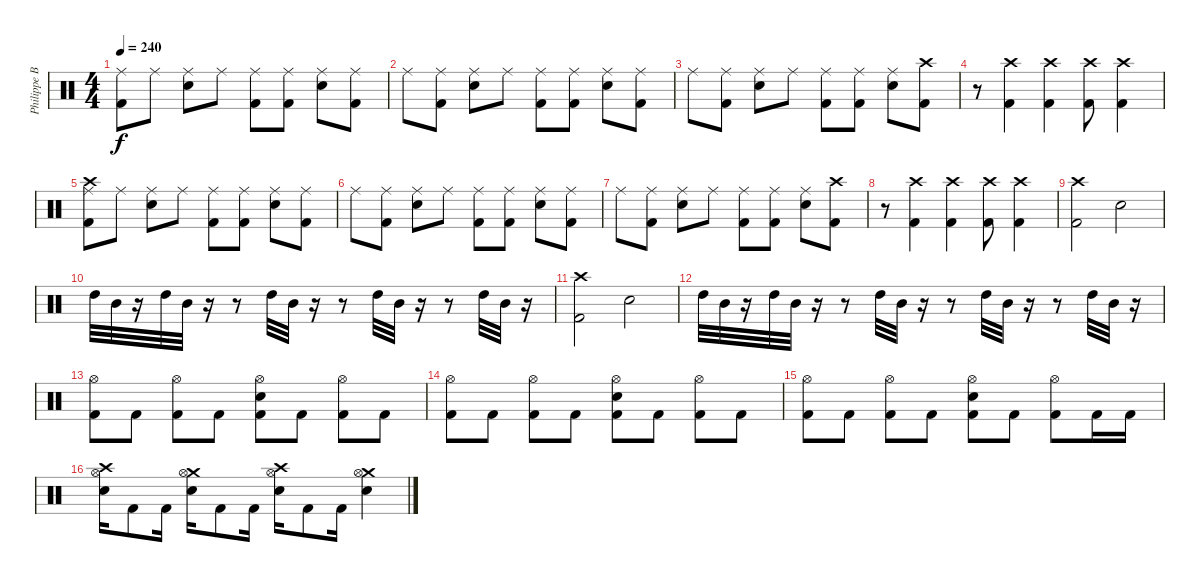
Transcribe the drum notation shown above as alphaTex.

\track ("Philippe Borda" "Philippe B") {instrument percussion}
\staff {score}
\articulation defaults
\ts (4 4)
\tempo 240
\clef neutral
\ks c
("Ride (middle)" "Kick (hit) 2").8{dy f} "Ride (middle)".8 ("Ride (middle)" "Snare (hit) 2").8 "Ride (middle)".8 ("Ride (middle)" "Kick (hit) 2").8 ("Ride (middle)" "Kick (hit) 2").8 ("Ride (middle)" "Snare (hit) 2").8 ("Ride (middle)" "Kick (hit) 2").8 |
"Ride (middle)".8 ("Ride (middle)" "Kick (hit) 2").8 ("Ride (middle)" "Snare (hit) 2").8 "Ride (middle)".8 ("Ride (middle)" "Kick (hit) 2").8 ("Ride (middle)" "Kick (hit) 2").8 ("Ride (middle)" "Snare (hit) 2").8 ("Ride (middle)" "Kick (hit) 2").8 |
"Ride (middle)".8 ("Ride (middle)" "Kick (hit) 2").8 ("Ride (middle)" "Snare (hit) 2").8 "Ride (middle)".8 ("Ride (middle)" "Kick (hit) 2").8 ("Ride (middle)" "Kick (hit) 2").8 ("Ride (middle)" "Snare (hit) 2").8 ("Crash high (hit)" "Kick (hit) 2").8 |
r.8 ("Crash high (hit)" "Kick (hit) 2").4 ("Crash high (hit)" "Kick (hit) 2").4 ("Crash high (hit)" "Kick (hit) 2").8 ("Crash high (hit)" "Kick (hit) 2").4 |
("Crash high (hit)" "Ride (middle)" "Kick (hit) 2").8 "Ride (middle)".8 ("Ride (middle)" "Snare (hit) 2").8 "Ride (middle)".8 ("Ride (middle)" "Kick (hit) 2").8 ("Ride (middle)" "Kick (hit) 2").8 ("Ride (middle)" "Snare (hit) 2").8 ("Ride (middle)" "Kick (hit) 2").8 |
"Ride (middle)".8 ("Ride (middle)" "Kick (hit) 2").8 ("Ride (middle)" "Snare (hit) 2").8 "Ride (middle)".8 ("Ride (middle)" "Kick (hit) 2").8 ("Ride (middle)" "Kick (hit) 2").8 ("Ride (middle)" "Snare (hit) 2").8 ("Ride (middle)" "Kick (hit) 2").8 |
"Ride (middle)".8 ("Ride (middle)" "Kick (hit) 2").8 ("Ride (middle)" "Snare (hit) 2").8 "Ride (middle)".8 ("Ride (middle)" "Kick (hit) 2").8 ("Ride (middle)" "Kick (hit) 2").8 ("Ride (middle)" "Snare (hit) 2").8 ("Crash high (hit)" "Kick (hit) 2").8 |
r.8 ("Crash high (hit)" "Kick (hit) 2").4 ("Crash high (hit)" "Kick (hit) 2").4 ("Crash high (hit)" "Kick (hit) 2").8 ("Crash high (hit)" "Kick (hit) 2").4 |
("Crash high (hit)" "Kick (hit) 2").2 "Snare (hit) 2".2 |
"High Tom (hit)".32 "Mid Tom (hit)".32 r.16 "High Tom (hit)".32 "Mid Tom (hit)".32 r.16 r.8 "High Tom (hit)".32 "Mid Tom (hit)".32 r.16 r.8 "High Tom (hit)".32 "Mid Tom (hit)".32 r.16 r.8 "High Tom (hit)".32 "Mid Tom (hit)".32 r.16 |
("Crash high (hit)" "Kick (hit) 2").2 "Snare (hit) 2".2 |
"High Tom (hit)".32 "Mid Tom (hit)".32 r.16 "High Tom (hit)".32 "Mid Tom (hit)".32 r.16 r.8 "High Tom (hit)".32 "Mid Tom (hit)".32 r.16 r.8 "High Tom (hit)".32 "Mid Tom (hit)".32 r.16 r.8 "High Tom (hit)".32 "Mid Tom (hit)".32 r.16 |
("Hi-Hat (open)" "Kick (hit) 2").8 "Kick (hit) 2".8 ("Hi-Hat (open)" "Kick (hit) 2").8 "Kick (hit) 2".8 ("Hi-Hat (open)" "Snare (hit) 2" "Kick (hit) 2").8 "Kick (hit) 2".8 ("Hi-Hat (open)" "Kick (hit) 2").8 "Kick (hit) 2".8 |
("Hi-Hat (open)" "Kick (hit) 2").8 "Kick (hit) 2".8 ("Hi-Hat (open)" "Kick (hit) 2").8 "Kick (hit) 2".8 ("Hi-Hat (open)" "Snare (hit) 2" "Kick (hit) 2").8 "Kick (hit) 2".8 ("Hi-Hat (open)" "Kick (hit) 2").8 "Kick (hit) 2".8 |
("Hi-Hat (open)" "Kick (hit) 2").8 "Kick (hit) 2".8 ("Hi-Hat (open)" "Kick (hit) 2").8 "Kick (hit) 2".8 ("Hi-Hat (open)" "Snare (hit) 2" "Kick (hit) 2").8 "Kick (hit) 2".8 ("Hi-Hat (open)" "Kick (hit) 2").8 "Kick (hit) 2".16 "Kick (hit) 2".16 |
("Crash high (hit)" "Hi-Hat (open)" "Snare (hit) 2").16 "Kick (hit) 2".8 "Kick (hit) 2".16 ("Crash medium (hit)" "Hi-Hat (open)" "Snare (hit) 2").16 "Kick (hit) 2".8 "Kick (hit) 2".16 ("Crash high (hit)" "Hi-Hat (open)" "Snare (hit) 2").16 "Kick (hit) 2".8 "Kick (hit) 2".16 ("Crash medium (hit)" "Hi-Hat (open)" "Snare (hit) 2").4
